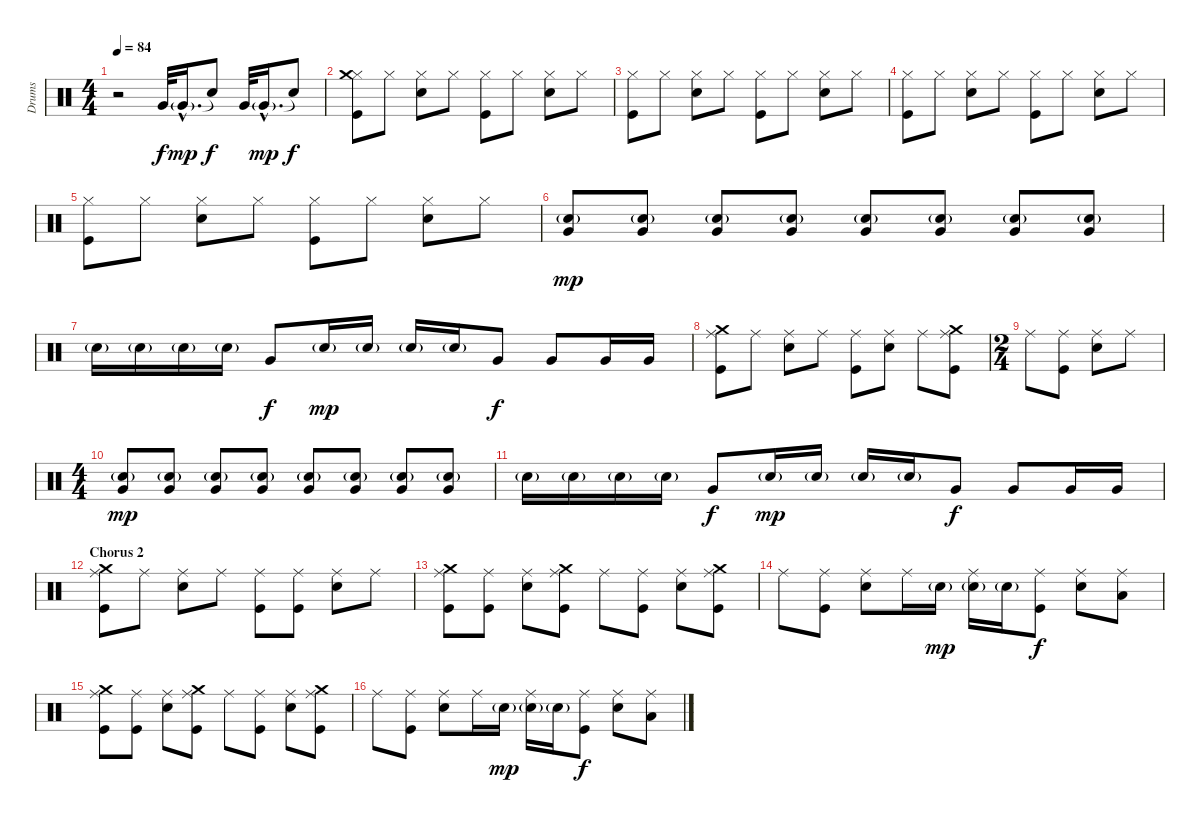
\track ("Drums" "Drums") {instrument percussion}
\staff {score}
\articulation defaults
\ts (4 4)
\tempo 84
\clef neutral
\ks c
r.2{dy f} "Very Low Tom (hit)".32 "Very Low Tom (hit)"{g hac}.16{d dy mp} "Snare (hit)"{t}.8{dy f} "Very Low Tom (hit)".32 "Very Low Tom (hit)"{g hac}.16{d dy mp} "Snare (hit)"{t}.8{dy f} |
("Hi-Hat (closed)" "Crash medium (hit)" "Kick (hit)").8 "Hi-Hat (closed)".8 ("Hi-Hat (closed)" "Snare (hit) 2").8 "Hi-Hat (closed)".8 ("Hi-Hat (closed)" "Kick (hit)").8 "Hi-Hat (closed)".8 ("Hi-Hat (closed)" "Snare (hit) 2").8 "Hi-Hat (closed)".8 |
("Hi-Hat (closed)" "Kick (hit)").8 "Hi-Hat (closed)".8 ("Hi-Hat (closed)" "Snare (hit) 2").8 "Hi-Hat (closed)".8 ("Hi-Hat (closed)" "Kick (hit)").8 "Hi-Hat (closed)".8 ("Hi-Hat (closed)" "Snare (hit) 2").8 "Hi-Hat (closed)".8 |
("Hi-Hat (closed)" "Kick (hit)").8 "Hi-Hat (closed)".8 ("Hi-Hat (closed)" "Snare (hit) 2").8 "Hi-Hat (closed)".8 ("Hi-Hat (closed)" "Kick (hit)").8 "Hi-Hat (closed)".8 ("Hi-Hat (closed)" "Snare (hit) 2").8 "Hi-Hat (closed)".8 |
("Hi-Hat (closed)" "Kick (hit)").8 "Hi-Hat (closed)".8 ("Hi-Hat (closed)" "Snare (hit) 2").8 "Hi-Hat (closed)".8 ("Hi-Hat (closed)" "Kick (hit)").8 "Hi-Hat (closed)".8 ("Hi-Hat (closed)" "Snare (hit) 2").8 "Hi-Hat (closed)".8 |
\section ("" "")
("Snare (hit) 2"{g} "Very Low Tom (hit)").8{dy mp} ("Snare (hit) 2"{g} "Very Low Tom (hit)").8 ("Snare (hit) 2"{g} "Very Low Tom (hit)").8 ("Snare (hit) 2"{g} "Very Low Tom (hit)").8 ("Snare (hit) 2"{g} "Very Low Tom (hit)").8 ("Snare (hit) 2"{g} "Very Low Tom (hit)").8 ("Snare (hit) 2"{g} "Very Low Tom (hit)").8 ("Snare (hit) 2"{g} "Very Low Tom (hit)").8 |
"Snare (hit) 2"{g}.16 "Snare (hit) 2"{g}.16 "Snare (hit) 2"{g}.16 "Snare (hit) 2"{g}.16 "Very Low Tom (hit)".8{dy f} "Snare (hit) 2"{g}.16{dy mp} "Snare (hit) 2"{g}.16 "Snare (hit) 2"{g}.16 "Snare (hit) 2"{g}.16 "Very Low Tom (hit)".8{dy f} "Very Low Tom (hit)".8 "Very Low Tom (hit)".16 "Very Low Tom (hit)".16 |
("Ride (middle)" "Crash medium (hit)" "Kick (hit)").8 "Ride (middle)".8 ("Ride (middle)" "Snare (hit) 2").8 "Ride (middle)".8 ("Ride (middle)" "Kick (hit)").8 ("Ride (middle)" "Snare (hit) 2").8 "Ride (middle)".8 ("Ride (middle)" "Crash medium (hit)" "Kick (hit)").8 |
\ts (2 4)
"Ride (middle)".8 ("Ride (middle)" "Kick (hit)").8 ("Ride (middle)" "Snare (hit) 2").8 "Ride (middle)".8 |
\ts (4 4)
("Snare (hit) 2"{g} "Very Low Tom (hit)").8{dy mp} ("Snare (hit) 2"{g} "Very Low Tom (hit)").8 ("Snare (hit) 2"{g} "Very Low Tom (hit)").8 ("Snare (hit) 2"{g} "Very Low Tom (hit)").8 ("Snare (hit) 2"{g} "Very Low Tom (hit)").8 ("Snare (hit) 2"{g} "Very Low Tom (hit)").8 ("Snare (hit) 2"{g} "Very Low Tom (hit)").8 ("Snare (hit) 2"{g} "Very Low Tom (hit)").8 |
"Snare (hit) 2"{g}.16 "Snare (hit) 2"{g}.16 "Snare (hit) 2"{g}.16 "Snare (hit) 2"{g}.16 "Very Low Tom (hit)".8{dy f} "Snare (hit) 2"{g}.16{dy mp} "Snare (hit) 2"{g}.16 "Snare (hit) 2"{g}.16 "Snare (hit) 2"{g}.16 "Very Low Tom (hit)".8{dy f} "Very Low Tom (hit)".8 "Very Low Tom (hit)".16 "Very Low Tom (hit)".16 |
\section ("" "Chorus 2")
("Ride (middle)" "Crash medium (hit)" "Kick (hit)").8 "Ride (middle)".8 ("Ride (middle)" "Snare (hit) 2").8 "Ride (middle)".8 ("Ride (middle)" "Kick (hit)").8 ("Ride (middle)" "Kick (hit)").8 ("Ride (middle)" "Snare (hit) 2").8 "Ride (middle)".8 |
("Ride (middle)" "Crash medium (hit)" "Kick (hit)").8 ("Ride (middle)" "Kick (hit)").8 ("Ride (middle)" "Snare (hit) 2").8 ("Ride (middle)" "Crash medium (hit)" "Kick (hit)").8 "Ride (middle)".8 ("Ride (middle)" "Kick (hit)").8 ("Ride (middle)" "Snare (hit) 2").8 ("Ride (middle)" "Crash medium (hit)" "Kick (hit)").8 |
"Ride (middle)".8 ("Ride (middle)" "Kick (hit)").8 ("Ride (middle)" "Snare (hit) 2").8 "Ride (middle)".16 "Snare (hit) 2"{g}.16{dy mp} ("Ride (middle)" "Snare (hit) 2"{g}).16 "Snare (hit) 2"{g}.16 ("Ride (middle)" "Kick (hit)").8{dy f} ("Ride (middle)" "Snare (hit) 2").8 ("Ride (middle)" "Low Tom (hit)").8 |
("Ride (middle)" "Crash medium (hit)" "Kick (hit)").8 ("Ride (middle)" "Kick (hit)").8 ("Ride (middle)" "Snare (hit) 2").8 ("Ride (middle)" "Crash medium (hit)" "Kick (hit)").8 "Ride (middle)".8 ("Ride (middle)" "Kick (hit)").8 ("Ride (middle)" "Snare (hit) 2").8 ("Ride (middle)" "Crash medium (hit)" "Kick (hit)").8 |
"Ride (middle)".8 ("Ride (middle)" "Kick (hit)").8 ("Ride (middle)" "Snare (hit) 2").8 "Ride (middle)".16 "Snare (hit) 2"{g}.16{dy mp} ("Ride (middle)" "Snare (hit) 2"{g}).16 "Snare (hit) 2"{g}.16 ("Ride (middle)" "Kick (hit)").8{dy f} ("Ride (middle)" "Snare (hit) 2").8 ("Ride (middle)" "Low Tom (hit)").8
